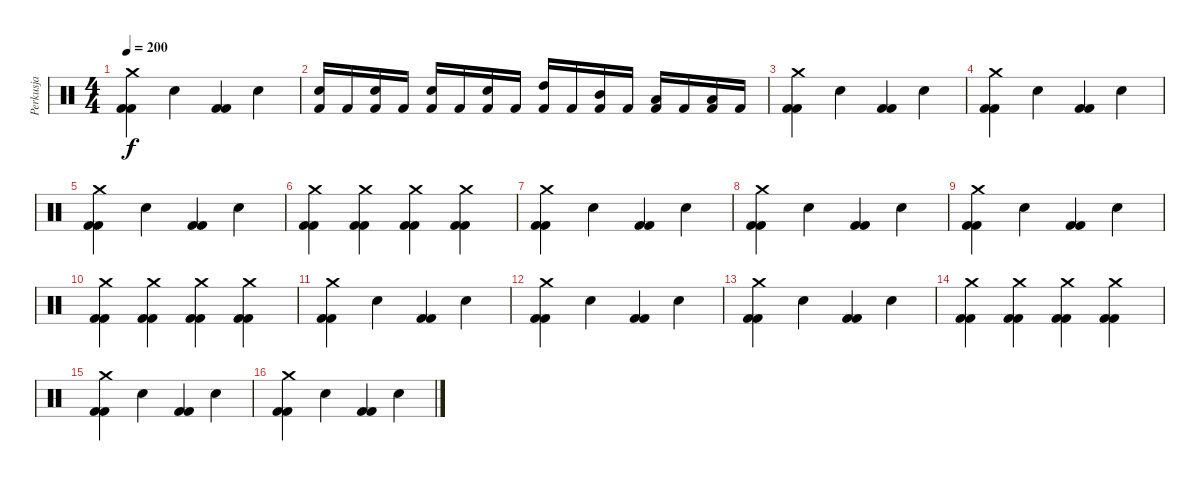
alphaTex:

\track ("Perkusja" "Perkusja") {instrument percussion}
\staff {score}
\articulation defaults
\ts (4 4)
\tempo 200
\clef neutral
\ks c
("Crash medium (hit)" "Kick (hit) 2" "Kick (hit) 2").4{dy f} "Snare (hit) 2".4 ("Kick (hit) 2" "Kick (hit) 2").4 "Snare (hit) 2".4 |
("Electric Snare (hit)" "Kick (hit) 2").16 "Kick (hit) 2".16 ("Electric Snare (hit)" "Kick (hit) 2").16 "Kick (hit) 2".16 ("Snare (hit) 2" "Kick (hit) 2").16 "Kick (hit) 2".16 ("Snare (hit) 2" "Kick (hit) 2").16 "Kick (hit) 2".16 ("High Tom (hit)" "Kick (hit) 2").16 "Kick (hit) 2".16 ("Mid Tom (hit)" "Kick (hit) 2").16 "Kick (hit) 2".16 ("Low Tom (hit)" "Kick (hit) 2").16 "Kick (hit) 2".16 ("Low Floor Tom (hit)" "Kick (hit) 2").16 "Kick (hit) 2".16 |
("Crash medium (hit)" "Kick (hit) 2" "Kick (hit) 2").4 "Snare (hit) 2".4 ("Kick (hit) 2" "Kick (hit) 2").4 "Snare (hit) 2".4 |
("Crash medium (hit)" "Kick (hit) 2" "Kick (hit) 2").4 "Snare (hit) 2".4 ("Kick (hit) 2" "Kick (hit) 2").4 "Snare (hit) 2".4 |
("Crash medium (hit)" "Kick (hit) 2" "Kick (hit) 2").4 "Snare (hit) 2".4 ("Kick (hit) 2" "Kick (hit) 2").4 "Snare (hit) 2".4 |
("Crash medium (hit)" "Kick (hit) 2" "Kick (hit) 2").4 ("Crash medium (hit)" "Kick (hit) 2" "Kick (hit) 2").4 ("Crash medium (hit)" "Kick (hit) 2" "Kick (hit) 2").4 ("Crash medium (hit)" "Kick (hit) 2" "Kick (hit) 2").4 |
("Crash medium (hit)" "Kick (hit) 2" "Kick (hit) 2").4 "Snare (hit) 2".4 ("Kick (hit) 2" "Kick (hit) 2").4 "Snare (hit) 2".4 |
("Crash medium (hit)" "Kick (hit) 2" "Kick (hit) 2").4 "Snare (hit) 2".4 ("Kick (hit) 2" "Kick (hit) 2").4 "Snare (hit) 2".4 |
("Crash medium (hit)" "Kick (hit) 2" "Kick (hit) 2").4 "Snare (hit) 2".4 ("Kick (hit) 2" "Kick (hit) 2").4 "Snare (hit) 2".4 |
("Crash medium (hit)" "Kick (hit) 2" "Kick (hit) 2").4 ("Crash medium (hit)" "Kick (hit) 2" "Kick (hit) 2").4 ("Crash medium (hit)" "Kick (hit) 2" "Kick (hit) 2").4 ("Crash medium (hit)" "Kick (hit) 2" "Kick (hit) 2").4 |
("Crash medium (hit)" "Kick (hit) 2" "Kick (hit) 2").4 "Snare (hit) 2".4 ("Kick (hit) 2" "Kick (hit) 2").4 "Snare (hit) 2".4 |
("Crash medium (hit)" "Kick (hit) 2" "Kick (hit) 2").4 "Snare (hit) 2".4 ("Kick (hit) 2" "Kick (hit) 2").4 "Snare (hit) 2".4 |
("Crash medium (hit)" "Kick (hit) 2" "Kick (hit) 2").4 "Snare (hit) 2".4 ("Kick (hit) 2" "Kick (hit) 2").4 "Snare (hit) 2".4 |
("Crash medium (hit)" "Kick (hit) 2" "Kick (hit) 2").4 ("Crash medium (hit)" "Kick (hit) 2" "Kick (hit) 2").4 ("Crash medium (hit)" "Kick (hit) 2" "Kick (hit) 2").4 ("Crash medium (hit)" "Kick (hit) 2" "Kick (hit) 2").4 |
("Crash medium (hit)" "Kick (hit) 2" "Kick (hit) 2").4 "Snare (hit) 2".4 ("Kick (hit) 2" "Kick (hit) 2").4 "Snare (hit) 2".4 |
("Crash medium (hit)" "Kick (hit) 2" "Kick (hit) 2").4 "Snare (hit) 2".4 ("Kick (hit) 2" "Kick (hit) 2").4 "Snare (hit) 2".4
